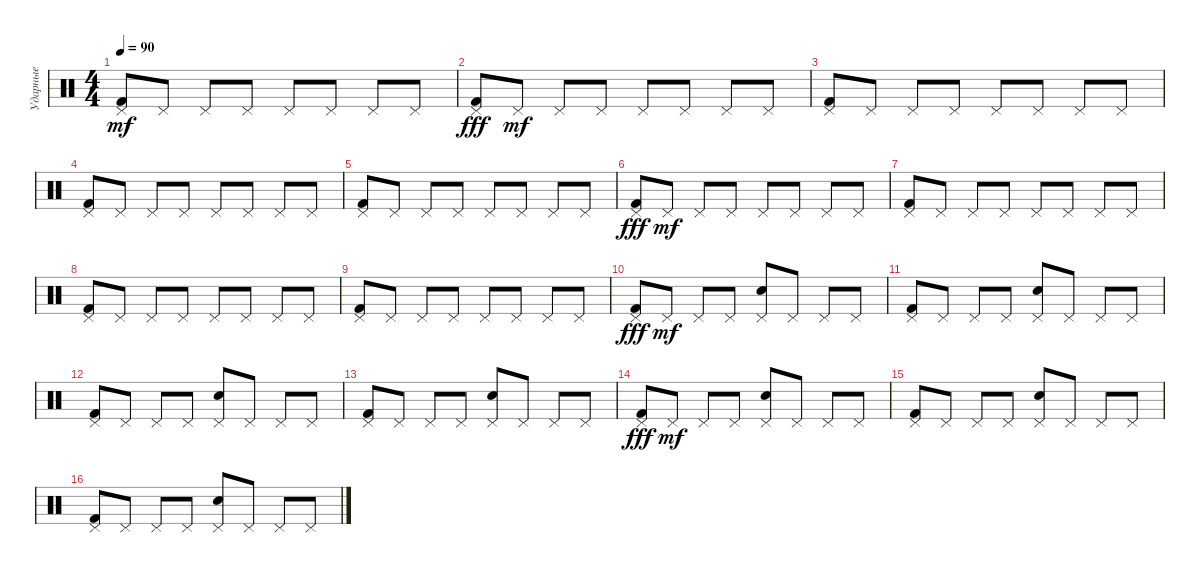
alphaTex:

\track ("Ударные" "Ударные") {instrument percussion}
\staff {score}
\articulation defaults
\ts (4 4)
\tempo 90
\clef neutral
\ks c
("Pedal Hi-Hat (hit)" "Kick (hit) 2").8{dy mf} "Pedal Hi-Hat (hit)".8 "Pedal Hi-Hat (hit)".8 "Pedal Hi-Hat (hit)".8 "Pedal Hi-Hat (hit)".8 "Pedal Hi-Hat (hit)".8 "Pedal Hi-Hat (hit)".8 "Pedal Hi-Hat (hit)".8 |
("Pedal Hi-Hat (hit)" "Kick (hit) 2").8{dy fff} "Pedal Hi-Hat (hit)".8{dy mf} "Pedal Hi-Hat (hit)".8 "Pedal Hi-Hat (hit)".8 "Pedal Hi-Hat (hit)".8 "Pedal Hi-Hat (hit)".8 "Pedal Hi-Hat (hit)".8 "Pedal Hi-Hat (hit)".8 |
("Pedal Hi-Hat (hit)" "Kick (hit) 2").8 "Pedal Hi-Hat (hit)".8 "Pedal Hi-Hat (hit)".8 "Pedal Hi-Hat (hit)".8 "Pedal Hi-Hat (hit)".8 "Pedal Hi-Hat (hit)".8 "Pedal Hi-Hat (hit)".8 "Pedal Hi-Hat (hit)".8 |
("Pedal Hi-Hat (hit)" "Kick (hit) 2").8 "Pedal Hi-Hat (hit)".8 "Pedal Hi-Hat (hit)".8 "Pedal Hi-Hat (hit)".8 "Pedal Hi-Hat (hit)".8 "Pedal Hi-Hat (hit)".8 "Pedal Hi-Hat (hit)".8 "Pedal Hi-Hat (hit)".8 |
("Pedal Hi-Hat (hit)" "Kick (hit) 2").8 "Pedal Hi-Hat (hit)".8 "Pedal Hi-Hat (hit)".8 "Pedal Hi-Hat (hit)".8 "Pedal Hi-Hat (hit)".8 "Pedal Hi-Hat (hit)".8 "Pedal Hi-Hat (hit)".8 "Pedal Hi-Hat (hit)".8 |
("Pedal Hi-Hat (hit)" "Kick (hit) 2").8{dy fff} "Pedal Hi-Hat (hit)".8{dy mf} "Pedal Hi-Hat (hit)".8 "Pedal Hi-Hat (hit)".8 "Pedal Hi-Hat (hit)".8 "Pedal Hi-Hat (hit)".8 "Pedal Hi-Hat (hit)".8 "Pedal Hi-Hat (hit)".8 |
("Pedal Hi-Hat (hit)" "Kick (hit) 2").8 "Pedal Hi-Hat (hit)".8 "Pedal Hi-Hat (hit)".8 "Pedal Hi-Hat (hit)".8 "Pedal Hi-Hat (hit)".8 "Pedal Hi-Hat (hit)".8 "Pedal Hi-Hat (hit)".8 "Pedal Hi-Hat (hit)".8 |
("Pedal Hi-Hat (hit)" "Kick (hit) 2").8 "Pedal Hi-Hat (hit)".8 "Pedal Hi-Hat (hit)".8 "Pedal Hi-Hat (hit)".8 "Pedal Hi-Hat (hit)".8 "Pedal Hi-Hat (hit)".8 "Pedal Hi-Hat (hit)".8 "Pedal Hi-Hat (hit)".8 |
("Pedal Hi-Hat (hit)" "Kick (hit) 2").8 "Pedal Hi-Hat (hit)".8 "Pedal Hi-Hat (hit)".8 "Pedal Hi-Hat (hit)".8 "Pedal Hi-Hat (hit)".8 "Pedal Hi-Hat (hit)".8 "Pedal Hi-Hat (hit)".8 "Pedal Hi-Hat (hit)".8 |
("Pedal Hi-Hat (hit)" "Kick (hit) 2").8{dy fff} "Pedal Hi-Hat (hit)".8{dy mf} "Pedal Hi-Hat (hit)".8 "Pedal Hi-Hat (hit)".8 ("Pedal Hi-Hat (hit)" "Snare (hit) 2").8 "Pedal Hi-Hat (hit)".8 "Pedal Hi-Hat (hit)".8 "Pedal Hi-Hat (hit)".8 |
("Pedal Hi-Hat (hit)" "Kick (hit) 2").8 "Pedal Hi-Hat (hit)".8 "Pedal Hi-Hat (hit)".8 "Pedal Hi-Hat (hit)".8 ("Pedal Hi-Hat (hit)" "Snare (hit) 2").8 "Pedal Hi-Hat (hit)".8 "Pedal Hi-Hat (hit)".8 "Pedal Hi-Hat (hit)".8 |
("Pedal Hi-Hat (hit)" "Kick (hit) 2").8 "Pedal Hi-Hat (hit)".8 "Pedal Hi-Hat (hit)".8 "Pedal Hi-Hat (hit)".8 ("Pedal Hi-Hat (hit)" "Snare (hit) 2").8 "Pedal Hi-Hat (hit)".8 "Pedal Hi-Hat (hit)".8 "Pedal Hi-Hat (hit)".8 |
("Pedal Hi-Hat (hit)" "Kick (hit) 2").8 "Pedal Hi-Hat (hit)".8 "Pedal Hi-Hat (hit)".8 "Pedal Hi-Hat (hit)".8 ("Pedal Hi-Hat (hit)" "Snare (hit) 2").8 "Pedal Hi-Hat (hit)".8 "Pedal Hi-Hat (hit)".8 "Pedal Hi-Hat (hit)".8 |
("Pedal Hi-Hat (hit)" "Kick (hit) 2").8{dy fff} "Pedal Hi-Hat (hit)".8{dy mf} "Pedal Hi-Hat (hit)".8 "Pedal Hi-Hat (hit)".8 ("Pedal Hi-Hat (hit)" "Snare (hit) 2").8 "Pedal Hi-Hat (hit)".8 "Pedal Hi-Hat (hit)".8 "Pedal Hi-Hat (hit)".8 |
("Pedal Hi-Hat (hit)" "Kick (hit) 2").8 "Pedal Hi-Hat (hit)".8 "Pedal Hi-Hat (hit)".8 "Pedal Hi-Hat (hit)".8 ("Pedal Hi-Hat (hit)" "Snare (hit) 2").8 "Pedal Hi-Hat (hit)".8 "Pedal Hi-Hat (hit)".8 "Pedal Hi-Hat (hit)".8 |
("Pedal Hi-Hat (hit)" "Kick (hit) 2").8 "Pedal Hi-Hat (hit)".8 "Pedal Hi-Hat (hit)".8 "Pedal Hi-Hat (hit)".8 ("Pedal Hi-Hat (hit)" "Snare (hit) 2").8 "Pedal Hi-Hat (hit)".8 "Pedal Hi-Hat (hit)".8 "Pedal Hi-Hat (hit)".8
